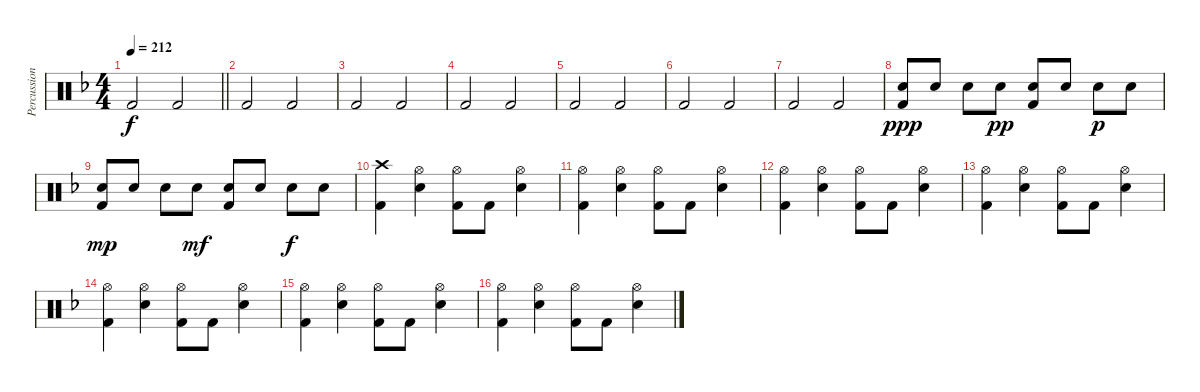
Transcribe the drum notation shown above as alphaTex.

\track ("Percussion" "Percussion") {instrument percussion}
\staff {score}
\articulation defaults
\ts (4 4)
\tempo 212
\clef neutral
\barLineRight lightlight
\ks dminor "Kick (hit) 2".2{dy f} "Kick (hit) 2".2
|
"Kick (hit) 2".2 "Kick (hit) 2".2 |
"Kick (hit) 2".2 "Kick (hit) 2".2 |
"Kick (hit) 2".2 "Kick (hit) 2".2 |
"Kick (hit) 2".2 "Kick (hit) 2".2 |
"Kick (hit) 2".2 "Kick (hit) 2".2 |
"Kick (hit) 2".2 "Kick (hit) 2".2 |
("Electric Snare (hit)" "Kick (hit) 2").8{dy ppp} "Electric Snare (hit)".8 "Electric Snare (hit)".8 "Electric Snare (hit)".8{dy pp} ("Electric Snare (hit)" "Kick (hit) 2").8 "Electric Snare (hit)".8 "Electric Snare (hit)".8{dy p} "Electric Snare (hit)".8 |
("Electric Snare (hit)" "Kick (hit) 2").8{dy mp} "Electric Snare (hit)".8 "Electric Snare (hit)".8 "Electric Snare (hit)".8{dy mf} ("Electric Snare (hit)" "Kick (hit) 2").8 "Electric Snare (hit)".8 "Electric Snare (hit)".8{dy f} "Electric Snare (hit)".8 |
("Crash high (hit)" "Kick (hit) 2").4 ("Hi-Hat (open)" "Electric Snare (hit)").4 ("Hi-Hat (open)" "Kick (hit) 2").8 "Kick (hit) 2".8 ("Hi-Hat (open)" "Electric Snare (hit)").4 |
("Hi-Hat (open)" "Kick (hit) 2").4 ("Hi-Hat (open)" "Electric Snare (hit)").4 ("Hi-Hat (open)" "Kick (hit) 2").8 "Kick (hit) 2".8 ("Hi-Hat (open)" "Electric Snare (hit)").4 |
("Hi-Hat (open)" "Kick (hit) 2").4 ("Hi-Hat (open)" "Electric Snare (hit)").4 ("Hi-Hat (open)" "Kick (hit) 2").8 "Kick (hit) 2".8 ("Hi-Hat (open)" "Electric Snare (hit)").4 |
("Hi-Hat (open)" "Kick (hit) 2").4 ("Hi-Hat (open)" "Electric Snare (hit)").4 ("Hi-Hat (open)" "Kick (hit) 2").8 "Kick (hit) 2".8 ("Hi-Hat (open)" "Electric Snare (hit)").4 |
("Hi-Hat (open)" "Kick (hit) 2").4 ("Hi-Hat (open)" "Electric Snare (hit)").4 ("Hi-Hat (open)" "Kick (hit) 2").8 "Kick (hit) 2".8 ("Hi-Hat (open)" "Electric Snare (hit)").4 |
("Hi-Hat (open)" "Kick (hit) 2").4 ("Hi-Hat (open)" "Electric Snare (hit)").4 ("Hi-Hat (open)" "Kick (hit) 2").8 "Kick (hit) 2".8 ("Hi-Hat (open)" "Electric Snare (hit)").4 |
("Hi-Hat (open)" "Kick (hit) 2").4 ("Hi-Hat (open)" "Electric Snare (hit)").4 ("Hi-Hat (open)" "Kick (hit) 2").8 "Kick (hit) 2".8 ("Hi-Hat (open)" "Electric Snare (hit)").4
